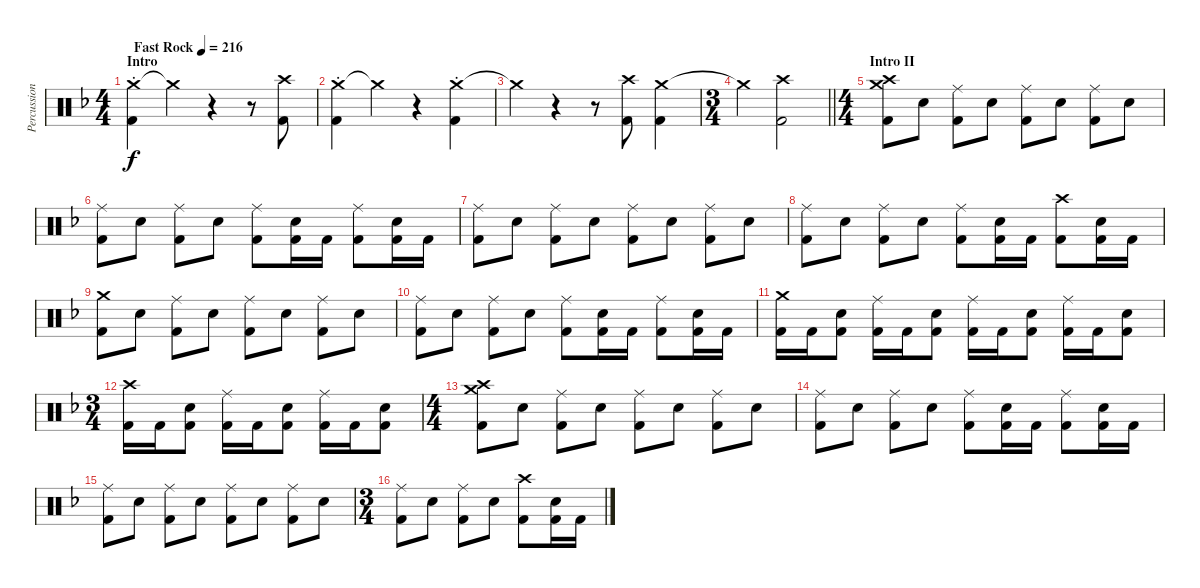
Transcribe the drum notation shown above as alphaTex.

\track ("Percussion" "Percussion") {instrument percussion}
\staff {score}
\articulation defaults
\ts (4 4)
\section ("" "Intro")
\tempo (216 "Fast Rock")
\clef neutral
\ks f
("Crash medium (hit)"{st} "Kick (hit) 2").4{dy f} "Crash medium (hit)"{t}.4{volume 0} r.4 r.8 ("Crash high (hit)" "Kick (hit) 2").8{volume 14} |
("Crash medium (hit)"{st} "Kick (hit) 2").4 "Crash medium (hit)"{t}.4{volume 0} r.4 ("Crash medium (hit)"{st} "Kick (hit) 2").4{volume 14} |
"Crash medium (hit)"{t}.4{volume 0} r.4 r.8 ("Crash high (hit)" "Kick (hit) 2").8{volume 14} ("Crash medium (hit)" "Kick (hit) 2").4 |
\ts (3 4)
\barLineRight lightlight "Crash medium (hit)"{t}.4
("Crash high (hit)" "Kick (hit) 2").2 |
\ts (4 4)
\section ("" "Intro II")
("Crash medium (hit)" "Crash high (hit)" "Kick (hit) 2").8 "Electric Snare (hit)".8 ("Ride (middle)" "Kick (hit) 2").8 "Electric Snare (hit)".8 ("Ride (middle)" "Kick (hit) 2").8 "Electric Snare (hit)".8 ("Ride (middle)" "Kick (hit) 2").8 "Electric Snare (hit)".8 |
("Ride (middle)" "Kick (hit) 2").8 "Electric Snare (hit)".8 ("Ride (middle)" "Kick (hit) 2").8 "Electric Snare (hit)".8 ("Ride (middle)" "Kick (hit) 2").8 ("Electric Snare (hit)" "Kick (hit) 2").16 "Kick (hit) 2".16 ("Ride (middle)" "Kick (hit) 2").8 ("Electric Snare (hit)" "Kick (hit) 2").16 "Kick (hit) 2".16 |
("Ride (middle)" "Kick (hit) 2").8 "Electric Snare (hit)".8 ("Ride (middle)" "Kick (hit) 2").8 "Electric Snare (hit)".8 ("Ride (middle)" "Kick (hit) 2").8 "Electric Snare (hit)".8 ("Ride (middle)" "Kick (hit) 2").8 "Electric Snare (hit)".8 |
("Ride (middle)" "Kick (hit) 2").8 "Electric Snare (hit)".8 ("Ride (middle)" "Kick (hit) 2").8 "Electric Snare (hit)".8 ("Ride (middle)" "Kick (hit) 2").8 ("Electric Snare (hit)" "Kick (hit) 2").16 "Kick (hit) 2".16 ("Crash high (hit)" "Kick (hit) 2").8 ("Electric Snare (hit)" "Kick (hit) 2").16 "Kick (hit) 2".16 |
("Crash medium (hit)" "Kick (hit) 2").8 "Electric Snare (hit)".8 ("Ride (middle)" "Kick (hit) 2").8 "Electric Snare (hit)".8 ("Ride (middle)" "Kick (hit) 2").8 "Electric Snare (hit)".8 ("Ride (middle)" "Kick (hit) 2").8 "Electric Snare (hit)".8 |
("Ride (middle)" "Kick (hit) 2").8 "Electric Snare (hit)".8 ("Ride (middle)" "Kick (hit) 2").8 "Electric Snare (hit)".8 ("Ride (middle)" "Kick (hit) 2").8 ("Electric Snare (hit)" "Kick (hit) 2").16 "Kick (hit) 2".16 ("Ride (middle)" "Kick (hit) 2").8 ("Electric Snare (hit)" "Kick (hit) 2").16 "Kick (hit) 2".16 |
("Crash medium (hit)" "Kick (hit) 2").16 "Kick (hit) 2".16 ("Electric Snare (hit)" "Kick (hit) 2").8 ("Ride (middle)" "Kick (hit) 2").16 "Kick (hit) 2".16 ("Electric Snare (hit)" "Kick (hit) 2").8 ("Ride (middle)" "Kick (hit) 2").16 "Kick (hit) 2".16 ("Electric Snare (hit)" "Kick (hit) 2").8 ("Ride (middle)" "Kick (hit) 2").16 "Kick (hit) 2".16 ("Electric Snare (hit)" "Kick (hit) 2").8 |
\ts (3 4)
("Crash high (hit)" "Kick (hit) 2").16 "Kick (hit) 2".16 ("Electric Snare (hit)" "Kick (hit) 2").8 ("Ride (middle)" "Kick (hit) 2").16 "Kick (hit) 2".16 ("Electric Snare (hit)" "Kick (hit) 2").8 ("Ride (middle)" "Kick (hit) 2").16 "Kick (hit) 2".16 ("Electric Snare (hit)" "Kick (hit) 2").8 |
\ts (4 4)
("Crash medium (hit)" "Crash high (hit)" "Kick (hit) 2").8 "Electric Snare (hit)".8 ("Ride (middle)" "Kick (hit) 2").8 "Electric Snare (hit)".8 ("Ride (middle)" "Kick (hit) 2").8 "Electric Snare (hit)".8 ("Ride (middle)" "Kick (hit) 2").8 "Electric Snare (hit)".8 |
("Ride (middle)" "Kick (hit) 2").8 "Electric Snare (hit)".8 ("Ride (middle)" "Kick (hit) 2").8 "Electric Snare (hit)".8 ("Ride (middle)" "Kick (hit) 2").8 ("Electric Snare (hit)" "Kick (hit) 2").16 "Kick (hit) 2".16 ("Ride (middle)" "Kick (hit) 2").8 ("Electric Snare (hit)" "Kick (hit) 2").16 "Kick (hit) 2".16 |
("Ride (middle)" "Kick (hit) 2").8 "Electric Snare (hit)".8 ("Ride (middle)" "Kick (hit) 2").8 "Electric Snare (hit)".8 ("Ride (middle)" "Kick (hit) 2").8 "Electric Snare (hit)".8 ("Ride (middle)" "Kick (hit) 2").8 "Electric Snare (hit)".8 |
\ts (3 4)
("Ride (middle)" "Kick (hit) 2").8 "Electric Snare (hit)".8 ("Ride (middle)" "Kick (hit) 2").8 "Electric Snare (hit)".8 ("Crash high (hit)" "Kick (hit) 2").8 ("Electric Snare (hit)" "Kick (hit) 2").16 "Kick (hit) 2".16
